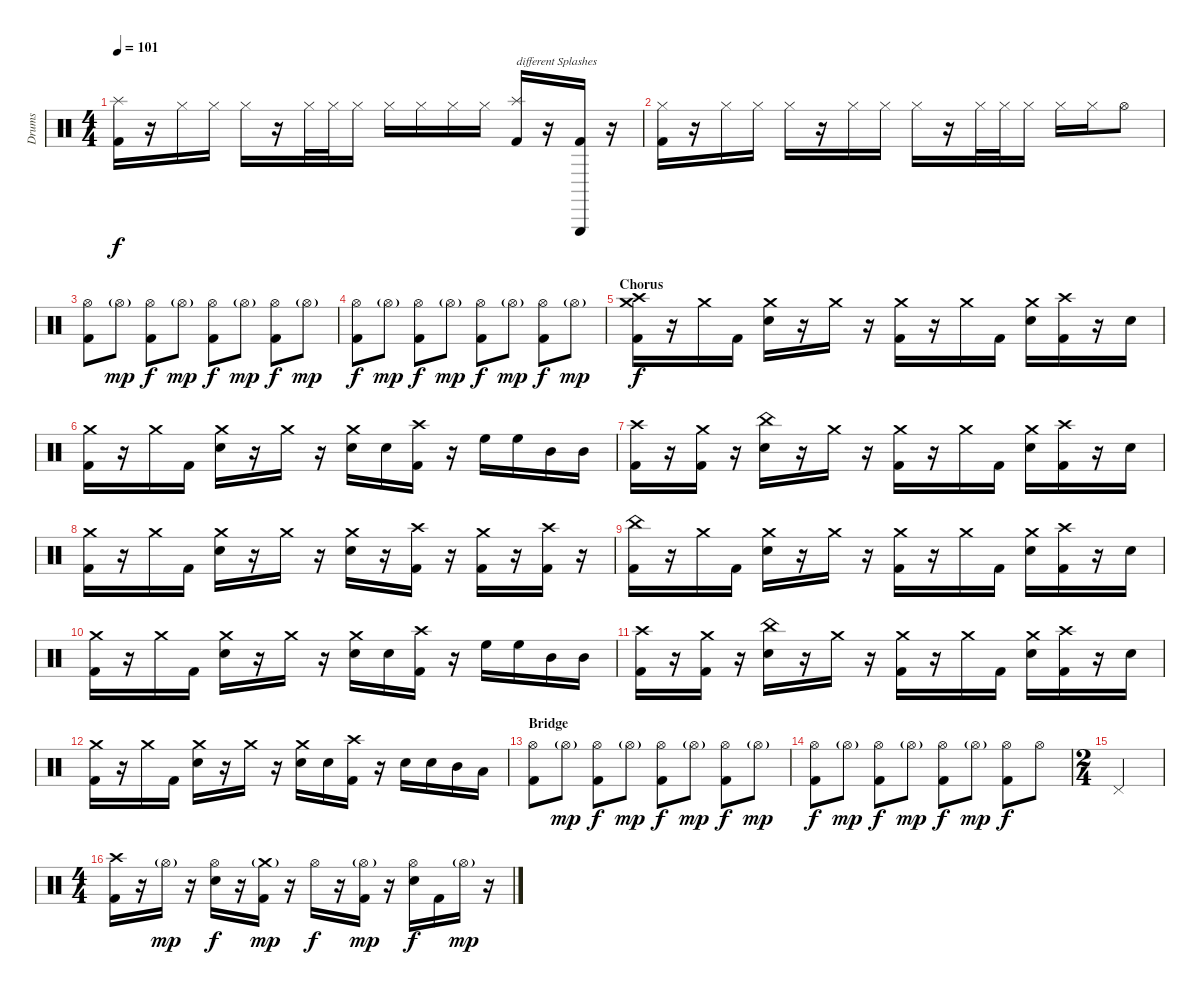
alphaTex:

\track ("Drums" "Drums") {instrument percussion}
\staff {score}
\articulation defaults
\ts (4 4)
\tempo 101
\clef neutral
\ks c
("Splash (hit)" "Kick (hit) 2").16{dy f} r.16 "Hi-Hat (closed)".16 "Hi-Hat (closed)".16 "Hi-Hat (closed)".16 r.16 "Hi-Hat (closed)".32 "Hi-Hat (closed)".32 "Hi-Hat (closed)".16 "Hi-Hat (closed)".16 "Hi-Hat (closed)".16 "Hi-Hat (closed)".16 "Hi-Hat (closed)".16 ("Splash (hit)" "Kick (hit) 2").16{txt "different Splashes"} r.16 ("Triangle (hit)" "Kick (hit) 2").16 r.16 |
("Hi-Hat (closed)" "Kick (hit) 2").16 r.16 "Hi-Hat (closed)".16 "Hi-Hat (closed)".16 "Hi-Hat (closed)".16 r.16 "Hi-Hat (closed)".16 "Hi-Hat (closed)".16 "Hi-Hat (closed)".16 r.16 "Hi-Hat (closed)".32 "Hi-Hat (closed)".32 "Hi-Hat (closed)".16 "Hi-Hat (closed)".16 "Hi-Hat (closed)".16 "Hi-Hat (open)".8 |
("Hi-Hat (open)" "Kick (hit) 2").8 "Hi-Hat (open)"{g}.8{dy mp} ("Hi-Hat (open)" "Kick (hit) 2").8{dy f} "Hi-Hat (open)"{g}.8{dy mp} ("Hi-Hat (open)" "Kick (hit) 2").8{dy f} "Hi-Hat (open)"{g}.8{dy mp} ("Hi-Hat (open)" "Kick (hit) 2").8{dy f} "Hi-Hat (open)"{g}.8{dy mp} |
("Hi-Hat (open)" "Kick (hit) 2").8{dy f} "Hi-Hat (open)"{g}.8{dy mp} ("Hi-Hat (open)" "Kick (hit) 2").8{dy f} "Hi-Hat (open)"{g}.8{dy mp} ("Hi-Hat (open)" "Kick (hit) 2").8{dy f} "Hi-Hat (open)"{g}.8{dy mp} ("Hi-Hat (open)" "Kick (hit) 2").8{dy f} "Hi-Hat (open)"{g}.8{dy mp} |
\section ("" "Chorus")
("Crash high (hit)" "Crash medium (hit)" "Kick (hit) 2").16{dy f} r.16 "Crash medium (hit)".16 "Kick (hit) 2".16 ("Crash medium (hit)" "Electric Snare (hit)").16 r.16 "Crash medium (hit)".16 r.16 ("Crash medium (hit)" "Kick (hit) 2").16 r.16 "Crash medium (hit)".16 "Kick (hit) 2".16 ("Crash medium (hit)" "Electric Snare (hit)").16 ("Crash high (hit)" "Kick (hit) 2").16 r.16 "Electric Snare (hit)".16 |
("Crash medium (hit)" "Kick (hit) 2").16 r.16 "Crash medium (hit)".16 "Kick (hit) 2".16 ("Crash medium (hit)" "Electric Snare (hit)").16 r.16 "Crash medium (hit)".16 r.16 ("Crash medium (hit)" "Electric Snare (hit)").16 "Electric Snare (hit)".16 ("Crash high (hit)" "Kick (hit) 2").16 r.16 "High Floor Tom (hit)".16 "High Floor Tom (hit)".16 "Mid Tom (hit)".16 "Mid Tom (hit)".16 |
("Crash high (hit)" "Kick (hit) 2").16 r.16 ("Crash medium (hit)" "Kick (hit) 2").16 r.16 ("China (hit)" "Electric Snare (hit)").16 r.16 "Crash medium (hit)".16 r.16 ("Crash medium (hit)" "Kick (hit) 2").16 r.16 "Crash medium (hit)".16 "Kick (hit) 2".16 ("Crash medium (hit)" "Electric Snare (hit)").16 ("Crash high (hit)" "Kick (hit) 2").16 r.16 "Electric Snare (hit)".16 |
("Crash medium (hit)" "Kick (hit) 2").16 r.16 "Crash medium (hit)".16 "Kick (hit) 2".16 ("Crash medium (hit)" "Electric Snare (hit)").16 r.16 "Crash medium (hit)".16 r.16 ("Crash medium (hit)" "Electric Snare (hit)").16 r.16 ("Crash high (hit)" "Kick (hit) 2").16 r.16 ("Crash medium (hit)" "Kick (hit) 2").16 r.16 ("Crash high (hit)" "Kick (hit) 2").16 r.16 |
("China (hit)" "Kick (hit) 2").16 r.16 "Crash medium (hit)".16 "Kick (hit) 2".16 ("Crash medium (hit)" "Electric Snare (hit)").16 r.16 "Crash medium (hit)".16 r.16 ("Crash medium (hit)" "Kick (hit) 2").16 r.16 "Crash medium (hit)".16 "Kick (hit) 2".16 ("Crash medium (hit)" "Electric Snare (hit)").16 ("Crash high (hit)" "Kick (hit) 2").16 r.16 "Electric Snare (hit)".16 |
("Crash medium (hit)" "Kick (hit) 2").16 r.16 "Crash medium (hit)".16 "Kick (hit) 2".16 ("Crash medium (hit)" "Electric Snare (hit)").16 r.16 "Crash medium (hit)".16 r.16 ("Crash medium (hit)" "Electric Snare (hit)").16 "Electric Snare (hit)".16 ("Crash high (hit)" "Kick (hit) 2").16 r.16 "High Floor Tom (hit)".16 "High Floor Tom (hit)".16 "Mid Tom (hit)".16 "Mid Tom (hit)".16 |
("Crash high (hit)" "Kick (hit) 2").16 r.16 ("Crash medium (hit)" "Kick (hit) 2").16 r.16 ("China (hit)" "Electric Snare (hit)").16 r.16 "Crash medium (hit)".16 r.16 ("Crash medium (hit)" "Kick (hit) 2").16 r.16 "Crash medium (hit)".16 "Kick (hit) 2".16 ("Crash medium (hit)" "Electric Snare (hit)").16 ("Crash high (hit)" "Kick (hit) 2").16 r.16 "Electric Snare (hit)".16 |
("Crash medium (hit)" "Kick (hit) 2").16 r.16 "Crash medium (hit)".16 "Kick (hit) 2".16 ("Crash medium (hit)" "Electric Snare (hit)").16 r.16 "Crash medium (hit)".16 r.16 ("Crash medium (hit)" "Electric Snare (hit)").16 "Electric Snare (hit)".16 ("Crash high (hit)" "Kick (hit) 2").16 r.16 "Electric Snare (hit)".16 "Electric Snare (hit)".16 "Mid Tom (hit)".16 "Low Tom (hit)".16 |
\section ("" "Bridge")
("Hi-Hat (open)" "Kick (hit) 2").8 "Hi-Hat (open)"{g}.8{dy mp} ("Hi-Hat (open)" "Kick (hit) 2").8{dy f} "Hi-Hat (open)"{g}.8{dy mp} ("Hi-Hat (open)" "Kick (hit) 2").8{dy f} "Hi-Hat (open)"{g}.8{dy mp} ("Hi-Hat (open)" "Kick (hit) 2").8{dy f} "Hi-Hat (open)"{g}.8{dy mp} |
("Hi-Hat (open)" "Kick (hit) 2").8{dy f} "Hi-Hat (open)"{g}.8{dy mp} ("Hi-Hat (open)" "Kick (hit) 2").8{dy f} "Hi-Hat (open)"{g}.8{dy mp} ("Hi-Hat (open)" "Kick (hit) 2").8{dy f} "Hi-Hat (open)"{g}.8{dy mp} ("Hi-Hat (open)" "Kick (hit) 2").8{dy f} "Hi-Hat (open)".8 |
\ts (2 4)
"Pedal Hi-Hat (hit)".2 |
\ts (4 4)
("Crash high (hit)" "Kick (hit) 2").16 r.16 "Hi-Hat (open)"{g}.16{dy mp} r.16 ("Hi-Hat (open)" "Electric Snare (hit)").16{dy f} r.16 ("Crash medium (hit)"{g} "Kick (hit) 2").16{dy mp} r.16 "Hi-Hat (open)".16{dy f} r.16 ("Hi-Hat (open)"{g} "Kick (hit) 2").16{dy mp} r.16 ("Hi-Hat (open)" "Electric Snare (hit)").16{dy f} "Kick (hit) 2".16 "Hi-Hat (open)"{g}.16{dy mp} r.16
